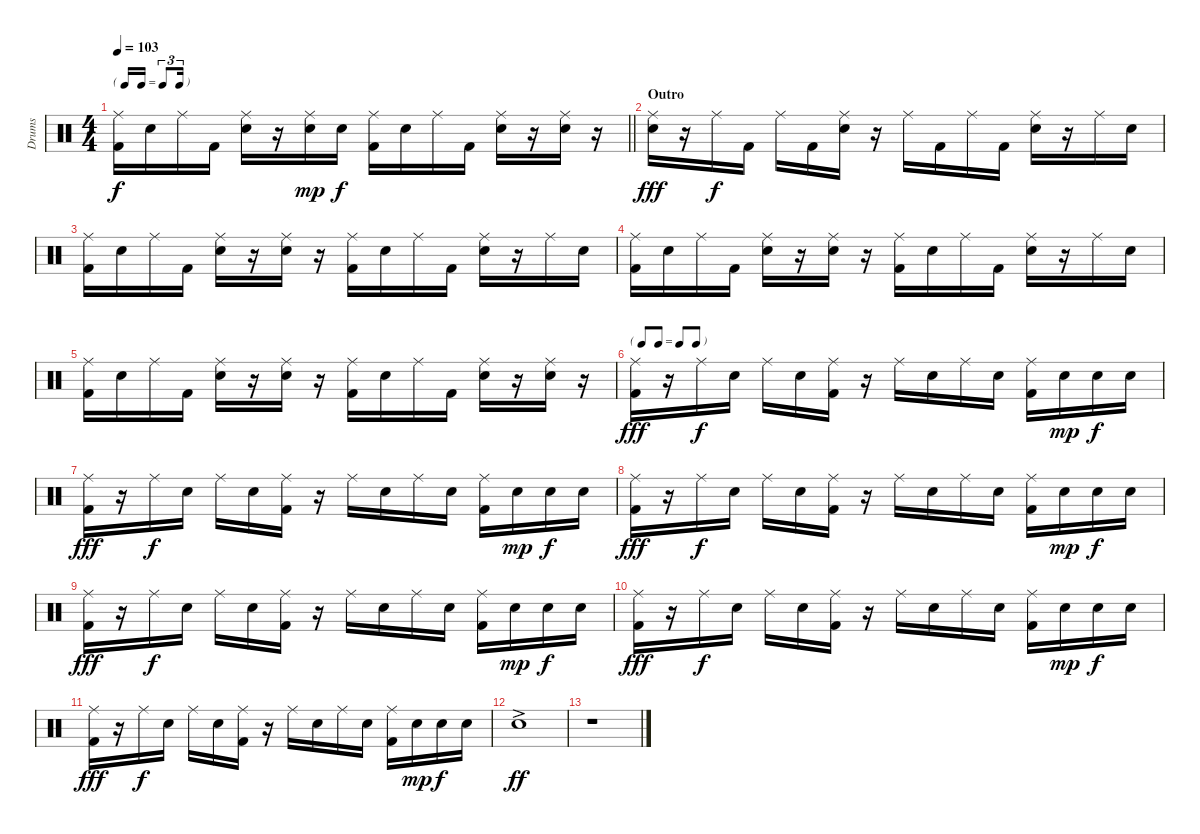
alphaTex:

\track ("Drums" "Drums") {instrument percussion}
\staff {score}
\articulation defaults
\ts (4 4)
\tf triplet16th
\tempo 103
\clef neutral
\barLineRight lightlight
\ks c
("Ride (middle)" "Kick (hit) 2").16{dy f} "Electric Snare (hit)".16 "Ride (middle)".16 "Kick (hit) 2".16 ("Ride (middle)" "Electric Snare (hit)").16 r.16 ("Ride (middle)" "Electric Snare (hit)").16{dy mp} "Electric Snare (hit)".16{dy f} ("Ride (middle)" "Kick (hit) 2").16 "Electric Snare (hit)".16 "Ride (middle)".16 "Kick (hit) 2".16 ("Ride (middle)" "Electric Snare (hit)").16 r.16 ("Ride (middle)" "Electric Snare (hit)").16 r.16 |
\section ("" "Outro")
("Ride (middle)" "Electric Snare (hit)").16{dy fff} r.16 "Ride (middle)".16{dy f} "Kick (hit) 2".16 "Ride (middle)".16 "Kick (hit) 2".16 ("Ride (middle)" "Electric Snare (hit)").16 r.16 "Ride (middle)".16 "Kick (hit) 2".16 "Ride (middle)".16 "Kick (hit) 2".16 ("Ride (middle)" "Electric Snare (hit)").16 r.16 "Ride (middle)".16 "Electric Snare (hit)".16 |
("Ride (middle)" "Kick (hit) 2").16 "Electric Snare (hit)".16 "Ride (middle)".16 "Kick (hit) 2".16 ("Ride (middle)" "Electric Snare (hit)").16 r.16 ("Ride (middle)" "Electric Snare (hit)").16 r.16 ("Ride (middle)" "Kick (hit) 2").16 "Electric Snare (hit)".16 "Ride (middle)".16 "Kick (hit) 2".16 ("Ride (middle)" "Electric Snare (hit)").16 r.16 "Ride (middle)".16 "Electric Snare (hit)".16 |
("Ride (middle)" "Kick (hit) 2").16 "Electric Snare (hit)".16 "Ride (middle)".16 "Kick (hit) 2".16 ("Ride (middle)" "Electric Snare (hit)").16 r.16 ("Ride (middle)" "Electric Snare (hit)").16 r.16 ("Ride (middle)" "Kick (hit) 2").16 "Electric Snare (hit)".16 "Ride (middle)".16 "Kick (hit) 2".16 ("Ride (middle)" "Electric Snare (hit)").16 r.16 "Ride (middle)".16 "Electric Snare (hit)".16 |
("Ride (middle)" "Kick (hit) 2").16 "Electric Snare (hit)".16 "Ride (middle)".16 "Kick (hit) 2".16 ("Ride (middle)" "Electric Snare (hit)").16 r.16 ("Ride (middle)" "Electric Snare (hit)").16 r.16 ("Ride (middle)" "Kick (hit) 2").16 "Electric Snare (hit)".16 "Ride (middle)".16 "Kick (hit) 2".16 ("Ride (middle)" "Electric Snare (hit)").16 r.16 ("Ride (middle)" "Electric Snare (hit)").16 r.16 |
\tf none
("Ride (middle)" "Kick (hit) 2").16{dy fff} r.16 "Ride (middle)".16{dy f} "Electric Snare (hit)".16 "Ride (middle)".16 "Electric Snare (hit)".16 ("Ride (middle)" "Kick (hit) 2").16 r.16 "Ride (middle)".16 "Electric Snare (hit)".16 "Ride (middle)".16 "Electric Snare (hit)".16 ("Ride (middle)" "Kick (hit) 2").16 "Electric Snare (hit)".16{dy mp} "Electric Snare (hit)".16{dy f} "Electric Snare (hit)".16 |
("Ride (middle)" "Kick (hit) 2").16{dy fff} r.16 "Ride (middle)".16{dy f} "Electric Snare (hit)".16 "Ride (middle)".16 "Electric Snare (hit)".16 ("Ride (middle)" "Kick (hit) 2").16 r.16 "Ride (middle)".16 "Electric Snare (hit)".16 "Ride (middle)".16 "Electric Snare (hit)".16 ("Ride (middle)" "Kick (hit) 2").16 "Electric Snare (hit)".16{dy mp} "Electric Snare (hit)".16{dy f} "Electric Snare (hit)".16 |
("Ride (middle)" "Kick (hit) 2").16{dy fff} r.16 "Ride (middle)".16{dy f} "Electric Snare (hit)".16 "Ride (middle)".16 "Electric Snare (hit)".16 ("Ride (middle)" "Kick (hit) 2").16 r.16 "Ride (middle)".16 "Electric Snare (hit)".16 "Ride (middle)".16 "Electric Snare (hit)".16 ("Ride (middle)" "Kick (hit) 2").16 "Electric Snare (hit)".16{dy mp} "Electric Snare (hit)".16{dy f} "Electric Snare (hit)".16 |
("Ride (middle)" "Kick (hit) 2").16{dy fff} r.16 "Ride (middle)".16{dy f} "Electric Snare (hit)".16 "Ride (middle)".16 "Electric Snare (hit)".16 ("Ride (middle)" "Kick (hit) 2").16 r.16 "Ride (middle)".16 "Electric Snare (hit)".16 "Ride (middle)".16 "Electric Snare (hit)".16 ("Ride (middle)" "Kick (hit) 2").16 "Electric Snare (hit)".16{dy mp} "Electric Snare (hit)".16{dy f} "Electric Snare (hit)".16 |
("Ride (middle)" "Kick (hit) 2").16{dy fff} r.16 "Ride (middle)".16{dy f} "Electric Snare (hit)".16 "Ride (middle)".16 "Electric Snare (hit)".16 ("Ride (middle)" "Kick (hit) 2").16 r.16 "Ride (middle)".16 "Electric Snare (hit)".16 "Ride (middle)".16 "Electric Snare (hit)".16 ("Ride (middle)" "Kick (hit) 2").16 "Electric Snare (hit)".16{dy mp} "Electric Snare (hit)".16{dy f} "Electric Snare (hit)".16 |
("Ride (middle)" "Kick (hit) 2").16{dy fff} r.16 "Ride (middle)".16{dy f} "Electric Snare (hit)".16 "Ride (middle)".16 "Electric Snare (hit)".16 ("Ride (middle)" "Kick (hit) 2").16 r.16 "Ride (middle)".16 "Electric Snare (hit)".16 "Ride (middle)".16 "Electric Snare (hit)".16 ("Ride (middle)" "Kick (hit) 2").16 "Electric Snare (hit)".16{dy mp} "Electric Snare (hit)".16{dy f} "Electric Snare (hit)".16 |
"Electric Snare (hit)"{ac}.1{dy ff} |
r.1
